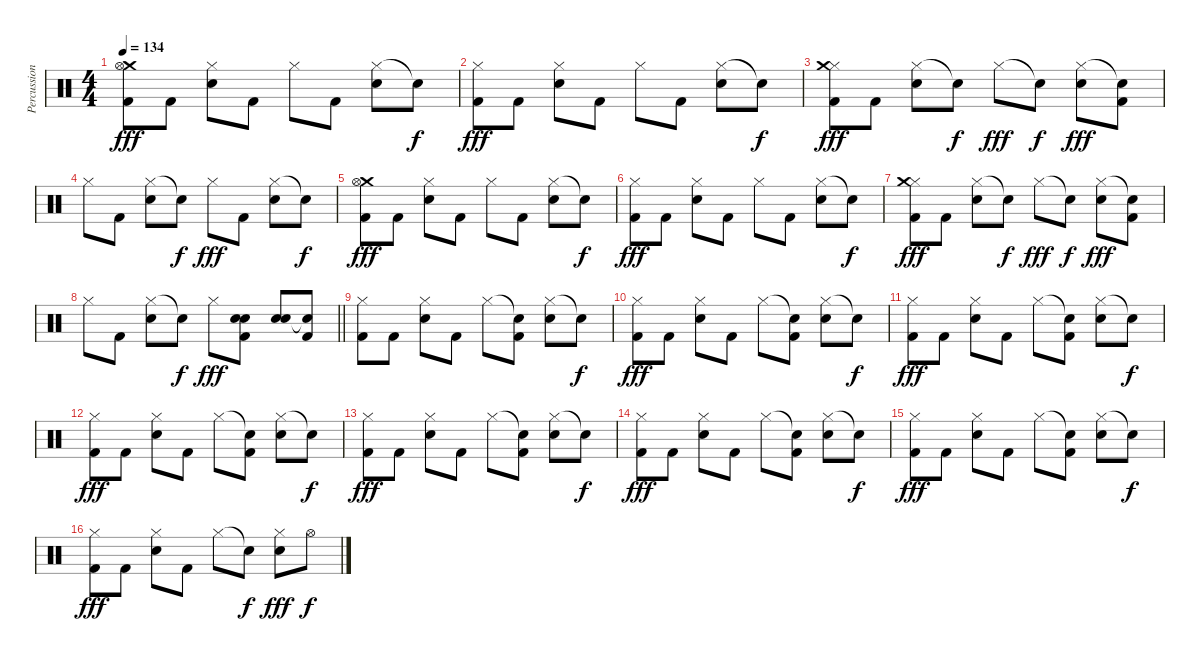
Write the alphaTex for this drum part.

\track ("Percussion" "Percussion") {instrument percussion}
\staff {score}
\articulation defaults
\ts (4 4)
\tempo 134
\clef neutral
\ks c
("Crash medium (hit)" "Hi-Hat (open)" "Kick (hit) 2").8{dy fff} "Kick (hit) 2".8 ("Hi-Hat (closed)" "Snare (hit) 2").8 "Kick (hit) 2".8 "Hi-Hat (closed)".8 "Kick (hit) 2".8 ("Hi-Hat (closed)" "Snare (hit) 2").8 "Snare (hit)"{t}.8{dy f} |
("Hi-Hat (closed)" "Kick (hit) 2").8{dy fff} "Kick (hit) 2".8 ("Hi-Hat (closed)" "Snare (hit) 2").8 "Kick (hit) 2".8 "Hi-Hat (closed)".8 "Kick (hit) 2".8 ("Hi-Hat (closed)" "Snare (hit) 2").8 "Snare (hit)"{t}.8{dy f} |
("Hi-Hat (closed)" "Crash medium (hit)" "Kick (hit) 2").8{dy fff} "Kick (hit) 2".8 ("Hi-Hat (closed)" "Snare (hit) 2").8 "Snare (hit)"{t}.8{dy f} "Hi-Hat (closed)".8{dy fff} "Snare (hit)"{t}.8{dy f} ("Hi-Hat (closed)" "Snare (hit) 2").8{dy fff} ("Snare (hit)"{t} "Kick (hit) 2").8 |
"Hi-Hat (closed)".8 "Kick (hit) 2".8 ("Hi-Hat (closed)" "Snare (hit) 2").8 "Snare (hit)"{t}.8{dy f} "Hi-Hat (closed)".8{dy fff} "Kick (hit) 2".8 ("Hi-Hat (closed)" "Snare (hit) 2").8 "Snare (hit)"{t}.8{dy f} |
("Crash medium (hit)" "Hi-Hat (open)" "Kick (hit) 2").8{dy fff} "Kick (hit) 2".8 ("Hi-Hat (closed)" "Snare (hit) 2").8 "Kick (hit) 2".8 "Hi-Hat (closed)".8 "Kick (hit) 2".8 ("Hi-Hat (closed)" "Snare (hit) 2").8 "Snare (hit)"{t}.8{dy f} |
("Hi-Hat (closed)" "Kick (hit) 2").8{dy fff} "Kick (hit) 2".8 ("Hi-Hat (closed)" "Snare (hit) 2").8 "Kick (hit) 2".8 "Hi-Hat (closed)".8 "Kick (hit) 2".8 ("Hi-Hat (closed)" "Snare (hit) 2").8 "Snare (hit)"{t}.8{dy f} |
("Hi-Hat (closed)" "Crash medium (hit)" "Kick (hit) 2").8{dy fff} "Kick (hit) 2".8 ("Hi-Hat (closed)" "Snare (hit) 2").8 "Snare (hit)"{t}.8{dy f} "Hi-Hat (closed)".8{dy fff} "Snare (hit)"{t}.8{dy f} ("Hi-Hat (closed)" "Snare (hit) 2").8{dy fff} ("Snare (hit)"{t} "Kick (hit) 2").8 |
\barLineRight lightlight "Hi-Hat (closed)".8 "Kick (hit) 2".8
("Hi-Hat (closed)" "Snare (hit) 2").8 "Snare (hit)"{t}.8{dy f} "Hi-Hat (closed)".8{dy fff} ("Snare (hit) 2" "Snare (hit) 2" "Kick (hit) 2").8 ("Snare (hit) 2" "Snare (hit) 2").8 ("Snare (hit)"{t} "Kick (hit) 2").8 |
("Hi-Hat (closed)" "Kick (hit) 2").8 "Kick (hit) 2".8 ("Hi-Hat (closed)" "Snare (hit) 2").8 "Kick (hit) 2".8 "Hi-Hat (closed)".8 ("Snare (hit)"{t} "Kick (hit) 2").8 ("Hi-Hat (closed)" "Snare (hit) 2").8 "Snare (hit)"{t}.8{dy f} |
("Hi-Hat (closed)" "Kick (hit) 2").8{dy fff} "Kick (hit) 2".8 ("Hi-Hat (closed)" "Snare (hit) 2").8 "Kick (hit) 2".8 "Hi-Hat (closed)".8 ("Snare (hit)"{t} "Kick (hit) 2").8 ("Hi-Hat (closed)" "Snare (hit) 2").8 "Snare (hit)"{t}.8{dy f} |
("Hi-Hat (closed)" "Kick (hit) 2").8{dy fff} "Kick (hit) 2".8 ("Hi-Hat (closed)" "Snare (hit) 2").8 "Kick (hit) 2".8 "Hi-Hat (closed)".8 ("Snare (hit)"{t} "Kick (hit) 2").8 ("Hi-Hat (closed)" "Snare (hit) 2").8 "Snare (hit)"{t}.8{dy f} |
("Hi-Hat (closed)" "Kick (hit) 2").8{dy fff} "Kick (hit) 2".8 ("Hi-Hat (closed)" "Snare (hit) 2").8 "Kick (hit) 2".8 "Hi-Hat (closed)".8 ("Snare (hit)"{t} "Kick (hit) 2").8 ("Hi-Hat (closed)" "Snare (hit) 2").8 "Snare (hit)"{t}.8{dy f} |
("Hi-Hat (closed)" "Kick (hit) 2").8{dy fff} "Kick (hit) 2".8 ("Hi-Hat (closed)" "Snare (hit) 2").8 "Kick (hit) 2".8 "Hi-Hat (closed)".8 ("Snare (hit)"{t} "Kick (hit) 2").8 ("Hi-Hat (closed)" "Snare (hit) 2").8 "Snare (hit)"{t}.8{dy f} |
("Hi-Hat (closed)" "Kick (hit) 2").8{dy fff} "Kick (hit) 2".8 ("Hi-Hat (closed)" "Snare (hit) 2").8 "Kick (hit) 2".8 "Hi-Hat (closed)".8 ("Snare (hit)"{t} "Kick (hit) 2").8 ("Hi-Hat (closed)" "Snare (hit) 2").8 "Snare (hit)"{t}.8{dy f} |
("Hi-Hat (closed)" "Kick (hit) 2").8{dy fff} "Kick (hit) 2".8 ("Hi-Hat (closed)" "Snare (hit) 2").8 "Kick (hit) 2".8 "Hi-Hat (closed)".8 ("Snare (hit)"{t} "Kick (hit) 2").8 ("Hi-Hat (closed)" "Snare (hit) 2").8 "Snare (hit)"{t}.8{dy f} |
("Hi-Hat (closed)" "Kick (hit) 2").8{dy fff} "Kick (hit) 2".8 ("Hi-Hat (closed)" "Snare (hit) 2").8 "Kick (hit) 2".8 "Hi-Hat (closed)".8 "Snare (hit)"{t}.8{dy f} ("Hi-Hat (closed)" "Snare (hit) 2").8{dy fff} "Hi-Hat (open)".8{dy f}
